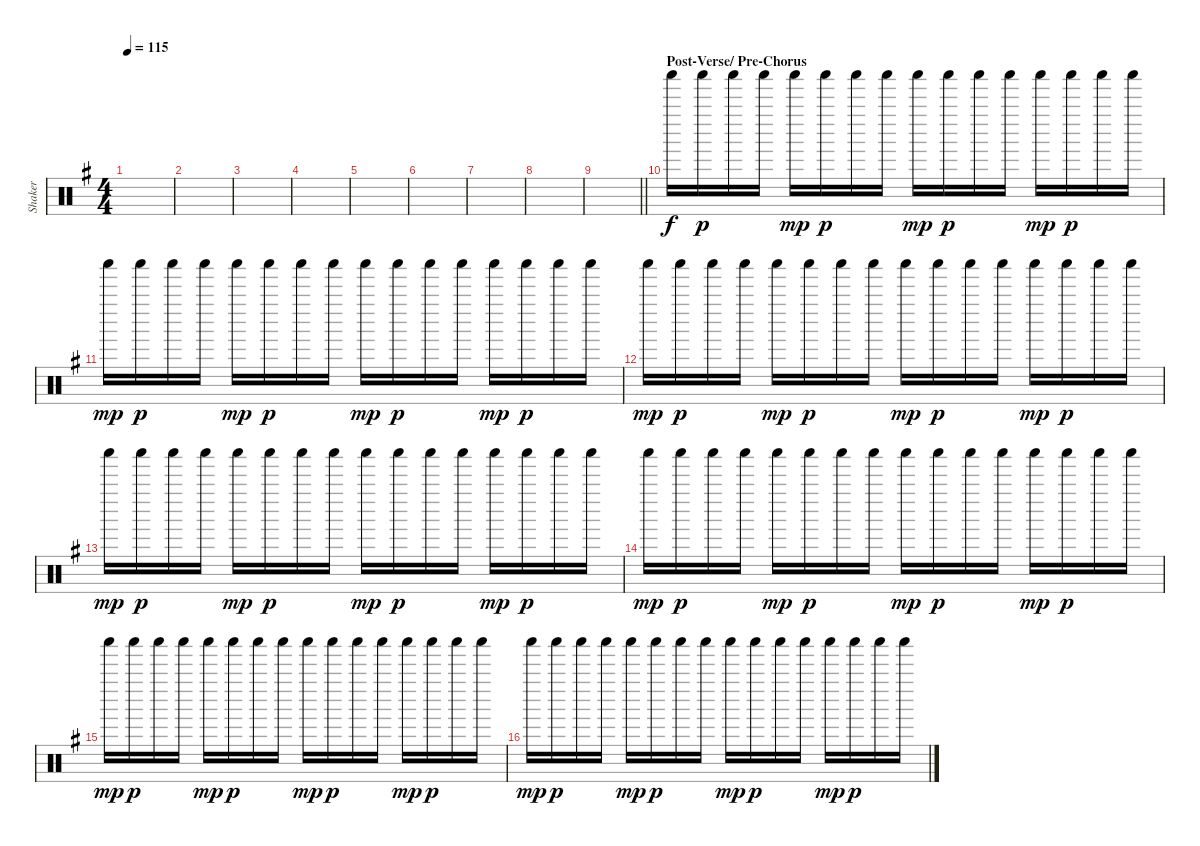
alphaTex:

\track ("Shaker" "Shaker") {instrument percussion}
\staff {score}
\articulation defaults
\ts (4 4)
\tempo 115
\clef neutral
\ks g
|
|
|
|
|
|
|
|
\barLineRight lightlight
|
\section ("" "Post-Verse/ Pre-Chorus")
"Shaker (hit)".16 "Shaker (hit)".16{dy p} "Shaker (hit)".16 "Shaker (hit)".16 "Shaker (hit)".16{dy mp} "Shaker (hit)".16{dy p} "Shaker (hit)".16 "Shaker (hit)".16 "Shaker (hit)".16{dy mp} "Shaker (hit)".16{dy p} "Shaker (hit)".16 "Shaker (hit)".16 "Shaker (hit)".16{dy mp} "Shaker (hit)".16{dy p} "Shaker (hit)".16 "Shaker (hit)".16 |
"Shaker (hit)".16{dy mp} "Shaker (hit)".16{dy p} "Shaker (hit)".16 "Shaker (hit)".16 "Shaker (hit)".16{dy mp} "Shaker (hit)".16{dy p} "Shaker (hit)".16 "Shaker (hit)".16 "Shaker (hit)".16{dy mp} "Shaker (hit)".16{dy p} "Shaker (hit)".16 "Shaker (hit)".16 "Shaker (hit)".16{dy mp} "Shaker (hit)".16{dy p} "Shaker (hit)".16 "Shaker (hit)".16 |
"Shaker (hit)".16{dy mp} "Shaker (hit)".16{dy p} "Shaker (hit)".16 "Shaker (hit)".16 "Shaker (hit)".16{dy mp} "Shaker (hit)".16{dy p} "Shaker (hit)".16 "Shaker (hit)".16 "Shaker (hit)".16{dy mp} "Shaker (hit)".16{dy p} "Shaker (hit)".16 "Shaker (hit)".16 "Shaker (hit)".16{dy mp} "Shaker (hit)".16{dy p} "Shaker (hit)".16 "Shaker (hit)".16 |
"Shaker (hit)".16{dy mp} "Shaker (hit)".16{dy p} "Shaker (hit)".16 "Shaker (hit)".16 "Shaker (hit)".16{dy mp} "Shaker (hit)".16{dy p} "Shaker (hit)".16 "Shaker (hit)".16 "Shaker (hit)".16{dy mp} "Shaker (hit)".16{dy p} "Shaker (hit)".16 "Shaker (hit)".16 "Shaker (hit)".16{dy mp} "Shaker (hit)".16{dy p} "Shaker (hit)".16 "Shaker (hit)".16 |
"Shaker (hit)".16{dy mp} "Shaker (hit)".16{dy p} "Shaker (hit)".16 "Shaker (hit)".16 "Shaker (hit)".16{dy mp} "Shaker (hit)".16{dy p} "Shaker (hit)".16 "Shaker (hit)".16 "Shaker (hit)".16{dy mp} "Shaker (hit)".16{dy p} "Shaker (hit)".16 "Shaker (hit)".16 "Shaker (hit)".16{dy mp} "Shaker (hit)".16{dy p} "Shaker (hit)".16 "Shaker (hit)".16 |
"Shaker (hit)".16{dy mp} "Shaker (hit)".16{dy p} "Shaker (hit)".16 "Shaker (hit)".16 "Shaker (hit)".16{dy mp} "Shaker (hit)".16{dy p} "Shaker (hit)".16 "Shaker (hit)".16 "Shaker (hit)".16{dy mp} "Shaker (hit)".16{dy p} "Shaker (hit)".16 "Shaker (hit)".16 "Shaker (hit)".16{dy mp} "Shaker (hit)".16{dy p} "Shaker (hit)".16 "Shaker (hit)".16 |
"Shaker (hit)".16{dy mp} "Shaker (hit)".16{dy p} "Shaker (hit)".16 "Shaker (hit)".16 "Shaker (hit)".16{dy mp} "Shaker (hit)".16{dy p} "Shaker (hit)".16 "Shaker (hit)".16 "Shaker (hit)".16{dy mp} "Shaker (hit)".16{dy p} "Shaker (hit)".16 "Shaker (hit)".16 "Shaker (hit)".16{dy mp} "Shaker (hit)".16{dy p} "Shaker (hit)".16 "Shaker (hit)".16
